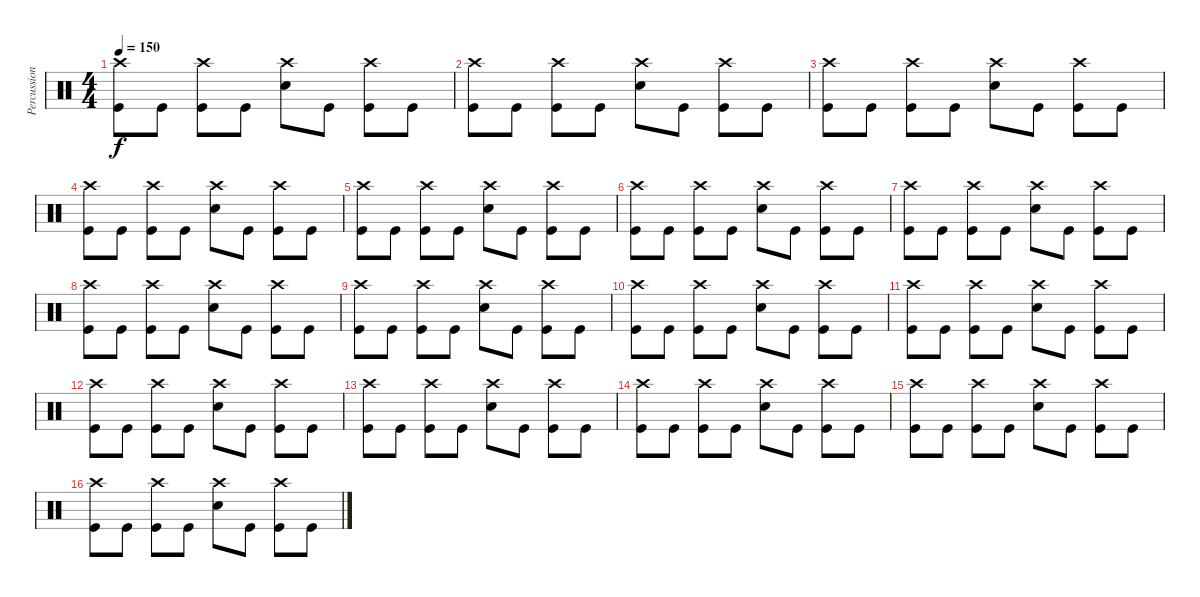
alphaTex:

\track ("Percussion" "Percussion") {instrument percussion}
\staff {score}
\articulation defaults
\ts (4 4)
\tempo 150
\clef neutral
\ks c
("Crash high (hit)" "Kick (hit)").8{dy f} "Kick (hit)".8 ("Crash high (hit)" "Kick (hit)").8 "Kick (hit)".8 ("Crash high (hit)" "Electric Snare (hit)").8 "Kick (hit)".8 ("Crash high (hit)" "Kick (hit)").8 "Kick (hit)".8 |
("Crash high (hit)" "Kick (hit)").8 "Kick (hit)".8 ("Crash high (hit)" "Kick (hit)").8 "Kick (hit)".8 ("Crash high (hit)" "Electric Snare (hit)").8 "Kick (hit)".8 ("Crash high (hit)" "Kick (hit)").8 "Kick (hit)".8 |
("Crash high (hit)" "Kick (hit)").8 "Kick (hit)".8 ("Crash high (hit)" "Kick (hit)").8 "Kick (hit)".8 ("Crash high (hit)" "Electric Snare (hit)").8 "Kick (hit)".8 ("Crash high (hit)" "Kick (hit)").8 "Kick (hit)".8 |
("Crash high (hit)" "Kick (hit)").8 "Kick (hit)".8 ("Crash high (hit)" "Kick (hit)").8 "Kick (hit)".8 ("Crash high (hit)" "Electric Snare (hit)").8 "Kick (hit)".8 ("Crash high (hit)" "Kick (hit)").8 "Kick (hit)".8 |
("Crash high (hit)" "Kick (hit)").8 "Kick (hit)".8 ("Crash high (hit)" "Kick (hit)").8 "Kick (hit)".8 ("Crash high (hit)" "Electric Snare (hit)").8 "Kick (hit)".8 ("Crash high (hit)" "Kick (hit)").8 "Kick (hit)".8 |
("Crash high (hit)" "Kick (hit)").8 "Kick (hit)".8 ("Crash high (hit)" "Kick (hit)").8 "Kick (hit)".8 ("Crash high (hit)" "Electric Snare (hit)").8 "Kick (hit)".8 ("Crash high (hit)" "Kick (hit)").8 "Kick (hit)".8 |
("Crash high (hit)" "Kick (hit)").8 "Kick (hit)".8 ("Crash high (hit)" "Kick (hit)").8 "Kick (hit)".8 ("Crash high (hit)" "Electric Snare (hit)").8 "Kick (hit)".8 ("Crash high (hit)" "Kick (hit)").8 "Kick (hit)".8 |
("Crash high (hit)" "Kick (hit)").8 "Kick (hit)".8 ("Crash high (hit)" "Kick (hit)").8 "Kick (hit)".8 ("Crash high (hit)" "Electric Snare (hit)").8 "Kick (hit)".8 ("Crash high (hit)" "Kick (hit)").8 "Kick (hit)".8 |
("Crash high (hit)" "Kick (hit)").8 "Kick (hit)".8 ("Crash high (hit)" "Kick (hit)").8 "Kick (hit)".8 ("Crash high (hit)" "Electric Snare (hit)").8 "Kick (hit)".8 ("Crash high (hit)" "Kick (hit)").8 "Kick (hit)".8 |
("Crash high (hit)" "Kick (hit)").8 "Kick (hit)".8 ("Crash high (hit)" "Kick (hit)").8 "Kick (hit)".8 ("Crash high (hit)" "Electric Snare (hit)").8 "Kick (hit)".8 ("Crash high (hit)" "Kick (hit)").8 "Kick (hit)".8 |
("Crash high (hit)" "Kick (hit)").8 "Kick (hit)".8 ("Crash high (hit)" "Kick (hit)").8 "Kick (hit)".8 ("Crash high (hit)" "Electric Snare (hit)").8 "Kick (hit)".8 ("Crash high (hit)" "Kick (hit)").8 "Kick (hit)".8 |
("Crash high (hit)" "Kick (hit)").8 "Kick (hit)".8 ("Crash high (hit)" "Kick (hit)").8 "Kick (hit)".8 ("Crash high (hit)" "Electric Snare (hit)").8 "Kick (hit)".8 ("Crash high (hit)" "Kick (hit)").8 "Kick (hit)".8 |
("Crash high (hit)" "Kick (hit)").8 "Kick (hit)".8 ("Crash high (hit)" "Kick (hit)").8 "Kick (hit)".8 ("Crash high (hit)" "Electric Snare (hit)").8 "Kick (hit)".8 ("Crash high (hit)" "Kick (hit)").8 "Kick (hit)".8 |
("Crash high (hit)" "Kick (hit)").8 "Kick (hit)".8 ("Crash high (hit)" "Kick (hit)").8 "Kick (hit)".8 ("Crash high (hit)" "Electric Snare (hit)").8 "Kick (hit)".8 ("Crash high (hit)" "Kick (hit)").8 "Kick (hit)".8 |
("Crash high (hit)" "Kick (hit)").8 "Kick (hit)".8 ("Crash high (hit)" "Kick (hit)").8 "Kick (hit)".8 ("Crash high (hit)" "Electric Snare (hit)").8 "Kick (hit)".8 ("Crash high (hit)" "Kick (hit)").8 "Kick (hit)".8 |
("Crash high (hit)" "Kick (hit)").8 "Kick (hit)".8 ("Crash high (hit)" "Kick (hit)").8 "Kick (hit)".8 ("Crash high (hit)" "Electric Snare (hit)").8 "Kick (hit)".8 ("Crash high (hit)" "Kick (hit)").8 "Kick (hit)".8
